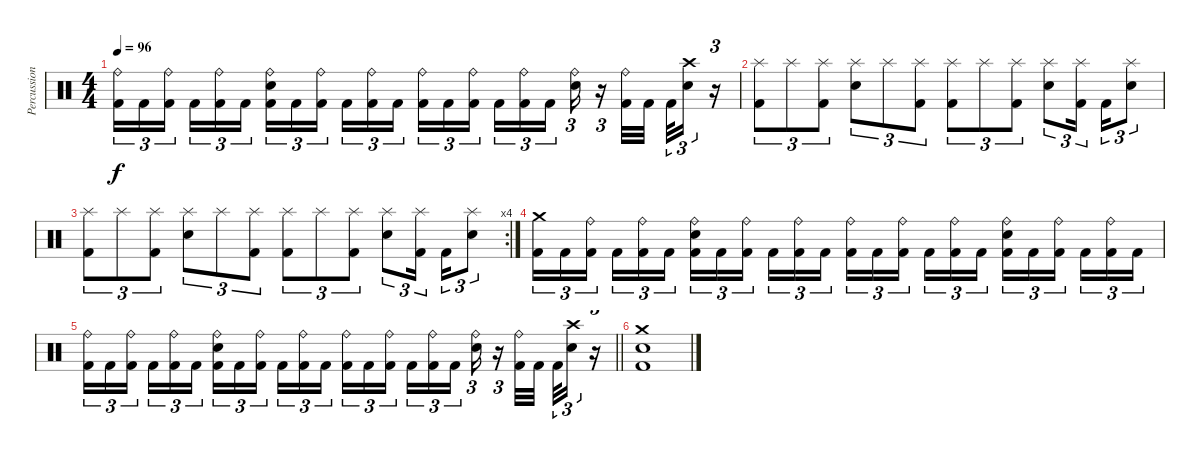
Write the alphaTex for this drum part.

\track ("Percussions" "Percussion") {instrument percussion}
\staff {score}
\articulation defaults
\ts (4 4)
\tempo 96
\clef neutral
\ks c
("Ride (bell)" "Kick (hit) 2").16{tu (3 2) dy f} "Kick (hit) 2".16{tu (3 2)} ("Ride (bell)" "Kick (hit) 2").16{tu (3 2) beam splitsecondary} "Kick (hit) 2".16{tu (3 2)} ("Ride (bell)" "Kick (hit) 2").16{tu (3 2)} "Kick (hit) 2".16{tu (3 2)} ("Ride (bell)" "Snare (hit) 2" "Kick (hit) 2").16{tu (3 2)} "Kick (hit) 2".16{tu (3 2)} ("Ride (bell)" "Kick (hit) 2").16{tu (3 2) beam splitsecondary} "Kick (hit) 2".16{tu (3 2)} ("Ride (bell)" "Kick (hit) 2").16{tu (3 2)} "Kick (hit) 2".16{tu (3 2)} ("Ride (bell)" "Kick (hit) 2").16{tu (3 2)} "Kick (hit) 2".16{tu (3 2)} ("Ride (bell)" "Kick (hit) 2").16{tu (3 2) beam splitsecondary} "Kick (hit) 2".16{tu (3 2)} ("Ride (bell)" "Kick (hit) 2").16{tu (3 2)} "Kick (hit) 2".16{tu (3 2)} ("Ride (bell)" "Snare (hit) 2").16{tu (3 2)} r.16{tu (3 2)} ("Ride (bell)" "Kick (hit) 2").32 "Kick (hit) 2".32{beam splitsecondary} "Kick (hit) 2".32{tu (3 2)} ("Crash high (hit)" "Snare (hit) 2").16{tu (3 2)} r.16{tu (3 2)} |
("Splash (hit)" "Kick (hit) 2").8{tu (3 2)} "Splash (hit)".8{tu (3 2)} ("Splash (hit)" "Kick (hit) 2").8{tu (3 2)} ("Splash (hit)" "Snare (hit) 2").8{tu (3 2)} "Splash (hit)".8{tu (3 2)} ("Splash (hit)" "Kick (hit) 2").8{tu (3 2)} ("Splash (hit)" "Kick (hit) 2").8{tu (3 2)} "Splash (hit)".8{tu (3 2)} ("Splash (hit)" "Kick (hit) 2").8{tu (3 2)} ("Splash (hit)" "Snare (hit) 2").8{tu (3 2)} ("Splash (hit)" "Kick (hit) 2").16{tu (3 2) beam splitsecondary} "Kick (hit) 2".16{tu (3 2)} ("Splash (hit)" "Snare (hit) 2").8{tu (3 2)} |
\rc 4
("Splash (hit)" "Kick (hit) 2").8{tu (3 2)} "Splash (hit)".8{tu (3 2)} ("Splash (hit)" "Kick (hit) 2").8{tu (3 2)} ("Splash (hit)" "Snare (hit) 2").8{tu (3 2)} "Splash (hit)".8{tu (3 2)} ("Splash (hit)" "Kick (hit) 2").8{tu (3 2)} ("Splash (hit)" "Kick (hit) 2").8{tu (3 2)} "Splash (hit)".8{tu (3 2)} ("Splash (hit)" "Kick (hit) 2").8{tu (3 2)} ("Splash (hit)" "Snare (hit) 2").8{tu (3 2)} ("Splash (hit)" "Kick (hit) 2").16{tu (3 2) beam splitsecondary} "Kick (hit) 2".16{tu (3 2)} ("Splash (hit)" "Snare (hit) 2").8{tu (3 2)} |
("Crash medium (hit)" "Kick (hit) 2").16{tu (3 2)} "Kick (hit) 2".16{tu (3 2)} ("Ride (bell)" "Kick (hit) 2").16{tu (3 2) beam splitsecondary} "Kick (hit) 2".16{tu (3 2)} ("Ride (bell)" "Kick (hit) 2").16{tu (3 2)} "Kick (hit) 2".16{tu (3 2)} ("Ride (bell)" "Snare (hit) 2" "Kick (hit) 2").16{tu (3 2)} "Kick (hit) 2".16{tu (3 2)} ("Ride (bell)" "Kick (hit) 2").16{tu (3 2) beam splitsecondary} "Kick (hit) 2".16{tu (3 2)} ("Ride (bell)" "Kick (hit) 2").16{tu (3 2)} "Kick (hit) 2".16{tu (3 2)} ("Ride (bell)" "Kick (hit) 2").16{tu (3 2)} "Kick (hit) 2".16{tu (3 2)} ("Ride (bell)" "Kick (hit) 2").16{tu (3 2) beam splitsecondary} "Kick (hit) 2".16{tu (3 2)} ("Ride (bell)" "Kick (hit) 2").16{tu (3 2)} "Kick (hit) 2".16{tu (3 2)} ("Ride (bell)" "Snare (hit) 2" "Kick (hit) 2").16{tu (3 2)} "Kick (hit) 2".16{tu (3 2)} ("Ride (bell)" "Kick (hit) 2").16{tu (3 2) beam splitsecondary} "Kick (hit) 2".16{tu (3 2)} ("Ride (bell)" "Kick (hit) 2").16{tu (3 2)} "Kick (hit) 2".16{tu (3 2)} |
\barLineRight lightlight
("Ride (bell)" "Kick (hit) 2").16{tu (3 2)} "Kick (hit) 2".16{tu (3 2)} ("Ride (bell)" "Kick (hit) 2").16{tu (3 2) beam splitsecondary} "Kick (hit) 2".16{tu (3 2)} ("Ride (bell)" "Kick (hit) 2").16{tu (3 2)} "Kick (hit) 2".16{tu (3 2)} ("Ride (bell)" "Snare (hit) 2" "Kick (hit) 2").16{tu (3 2)} "Kick (hit) 2".16{tu (3 2)} ("Ride (bell)" "Kick (hit) 2").16{tu (3 2) beam splitsecondary} "Kick (hit) 2".16{tu (3 2)} ("Ride (bell)" "Kick (hit) 2").16{tu (3 2)} "Kick (hit) 2".16{tu (3 2)} ("Ride (bell)" "Kick (hit) 2").16{tu (3 2)} "Kick (hit) 2".16{tu (3 2)} ("Ride (bell)" "Kick (hit) 2").16{tu (3 2) beam splitsecondary} "Kick (hit) 2".16{tu (3 2)} ("Ride (bell)" "Kick (hit) 2").16{tu (3 2)} "Kick (hit) 2".16{tu (3 2)} ("Ride (bell)" "Snare (hit) 2").16{tu (3 2)} r.16{tu (3 2)} ("Ride (bell)" "Kick (hit) 2").32 "Kick (hit) 2".32{beam splitsecondary} "Kick (hit) 2".32{tu (3 2)} ("Crash high (hit)" "Snare (hit) 2").16{tu (3 2)} r.16{tu (3 2)} |
("Crash medium (hit)" "Snare (hit) 2" "Kick (hit) 2").1
